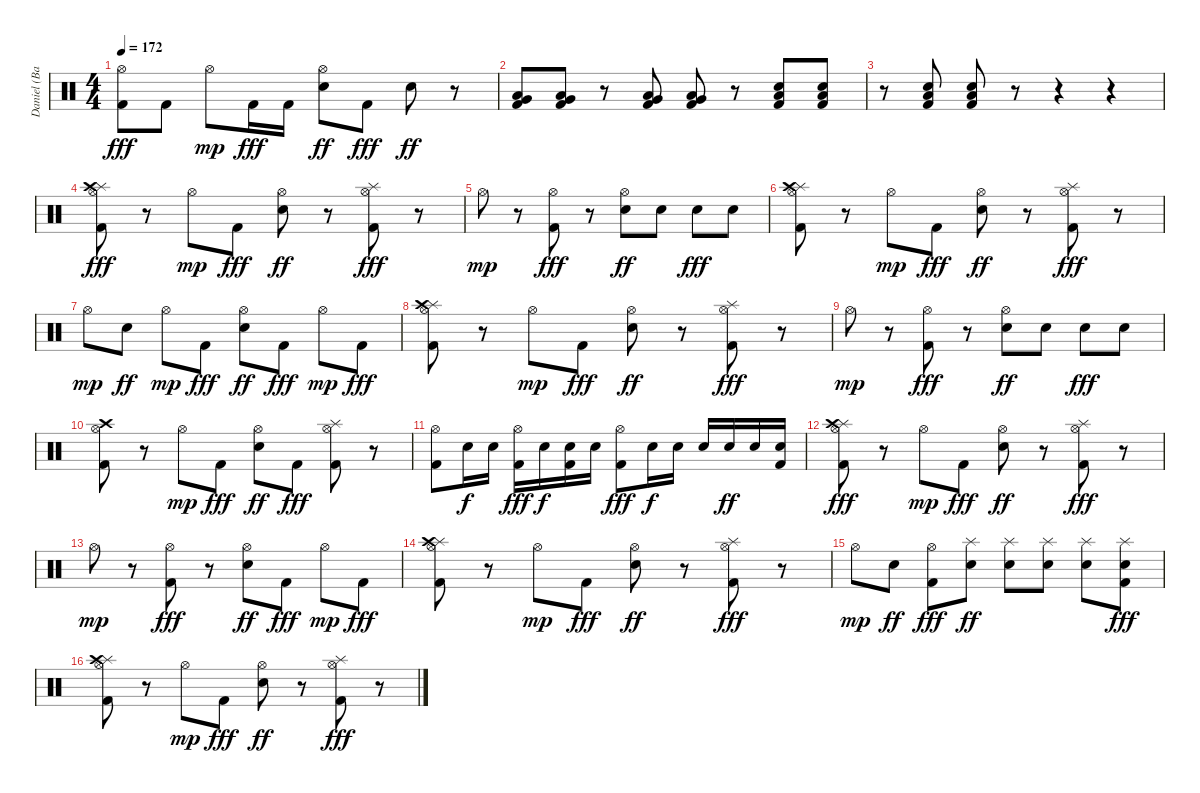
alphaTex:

\track ("Daniel (Bateria)" "Daniel (Ba") {instrument percussion}
\staff {score}
\articulation defaults
\ts (4 4)
\tempo 172
\clef neutral
\ks c
("Hi-Hat (open)" "Kick (hit) 2").8{dy fff} "Kick (hit) 2".8 "Hi-Hat (open)".8{dy mp} "Kick (hit) 2".16{dy fff} "Kick (hit) 2".16 ("Hi-Hat (open)" "Electric Snare (hit)").8{dy ff} "Kick (hit) 2".8{dy fff} "Electric Snare (hit)".8{dy ff} r.8 |
("Low Floor Tom (hit)" "Very Low Tom (hit)" "Kick (hit) 2").8 ("Low Floor Tom (hit)" "Very Low Tom (hit)" "Kick (hit) 2").8 r.8 ("Low Floor Tom (hit)" "Very Low Tom (hit)" "Kick (hit) 2").8 ("Low Floor Tom (hit)" "Very Low Tom (hit)" "Kick (hit) 2").8 r.8 ("Low Tom (hit)" "Electric Snare (hit)" "Kick (hit) 2").8 ("Low Tom (hit)" "Electric Snare (hit)" "Kick (hit) 2").8 |
r.8 ("Low Tom (hit)" "Electric Snare (hit)" "Kick (hit) 2").8 ("Low Tom (hit)" "Electric Snare (hit)" "Kick (hit) 2").8 r.8 r.4 r.4 |
("Splash (hit)" "Hi-Hat (open)" "Crash high (hit)" "Kick (hit) 2").8{dy fff} r.8 "Hi-Hat (open)".8{dy mp} "Kick (hit) 2".8{dy fff} ("Hi-Hat (open)" "Electric Snare (hit)").8{dy ff} r.8 ("Splash (hit)" "Hi-Hat (open)" "Kick (hit) 2").8{dy fff} r.8 |
"Hi-Hat (open)".8{dy mp} r.8 ("Hi-Hat (open)" "Kick (hit) 2").8{dy fff} r.8 ("Hi-Hat (open)" "Electric Snare (hit)").8{dy ff} "Electric Snare (hit)".8 "Electric Snare (hit)".8{dy fff} "Electric Snare (hit)".8 |
("Splash (hit)" "Hi-Hat (open)" "Crash high (hit)" "Kick (hit) 2").8 r.8 "Hi-Hat (open)".8{dy mp} "Kick (hit) 2".8{dy fff} ("Hi-Hat (open)" "Electric Snare (hit)").8{dy ff} r.8 ("Splash (hit)" "Hi-Hat (open)" "Kick (hit) 2").8{dy fff} r.8 |
"Hi-Hat (open)".8{dy mp} "Electric Snare (hit)".8{dy ff} "Hi-Hat (open)".8{dy mp} "Kick (hit) 2".8{dy fff} ("Hi-Hat (open)" "Electric Snare (hit)").8{dy ff} "Kick (hit) 2".8{dy fff} "Hi-Hat (open)".8{dy mp} "Kick (hit) 2".8{dy fff} |
("Splash (hit)" "Hi-Hat (open)" "Crash high (hit)" "Kick (hit) 2").8 r.8 "Hi-Hat (open)".8{dy mp} "Kick (hit) 2".8{dy fff} ("Hi-Hat (open)" "Electric Snare (hit)").8{dy ff} r.8 ("Splash (hit)" "Hi-Hat (open)" "Kick (hit) 2").8{dy fff} r.8 |
"Hi-Hat (open)".8{dy mp} r.8 ("Hi-Hat (open)" "Kick (hit) 2").8{dy fff} r.8 ("Hi-Hat (open)" "Electric Snare (hit)").8{dy ff} "Electric Snare (hit)".8 "Electric Snare (hit)".8{dy fff} "Electric Snare (hit)".8 |
("Hi-Hat (open)" "Crash high (hit)" "Kick (hit) 2").8 r.8 "Hi-Hat (open)".8{dy mp} "Kick (hit) 2".8{dy fff} ("Hi-Hat (open)" "Electric Snare (hit)").8{dy ff} "Kick (hit) 2".8{dy fff} ("Splash (hit)" "Hi-Hat (open)" "Kick (hit) 2").8 r.8 |
("Hi-Hat (open)" "Kick (hit) 2").8 "Electric Snare (hit)".16{dy f} "Electric Snare (hit)".16 ("Hi-Hat (open)" "Kick (hit) 2").16{dy fff} "Electric Snare (hit)".16{dy f} ("Electric Snare (hit)" "Kick (hit) 2").16 "Electric Snare (hit)".16 ("Hi-Hat (open)" "Kick (hit) 2").8{dy fff} "Electric Snare (hit)".16{dy f} "Electric Snare (hit)".16 "Electric Snare (hit)".16 "Electric Snare (hit)".16{dy ff} "Electric Snare (hit)".16 ("Electric Snare (hit)" "Kick (hit) 2").16 |
("Splash (hit)" "Hi-Hat (open)" "Crash high (hit)" "Kick (hit) 2").8{dy fff} r.8 "Hi-Hat (open)".8{dy mp} "Kick (hit) 2".8{dy fff} ("Hi-Hat (open)" "Electric Snare (hit)").8{dy ff} r.8 ("Splash (hit)" "Hi-Hat (open)" "Kick (hit) 2").8{dy fff} r.8 |
"Hi-Hat (open)".8{dy mp} r.8 ("Hi-Hat (open)" "Kick (hit) 2").8{dy fff} r.8 ("Hi-Hat (open)" "Electric Snare (hit)").8{dy ff} "Kick (hit) 2".8{dy fff} "Hi-Hat (open)".8{dy mp} "Kick (hit) 2".8{dy fff} |
("Splash (hit)" "Hi-Hat (open)" "Crash high (hit)" "Kick (hit) 2").8 r.8 "Hi-Hat (open)".8{dy mp} "Kick (hit) 2".8{dy fff} ("Hi-Hat (open)" "Electric Snare (hit)").8{dy ff} r.8 ("Splash (hit)" "Hi-Hat (open)" "Kick (hit) 2").8{dy fff} r.8 |
"Hi-Hat (open)".8{dy mp} "Electric Snare (hit)".8{dy ff} ("Hi-Hat (open)" "Kick (hit) 2").8{dy fff} ("Splash (hit)" "Electric Snare (hit)").8{dy ff} ("Splash (hit)" "Electric Snare (hit)").8 ("Splash (hit)" "Electric Snare (hit)").8 ("Splash (hit)" "Electric Snare (hit)").8 ("Splash (hit)" "Electric Snare (hit)" "Kick (hit) 2").8{dy fff} |
("Splash (hit)" "Hi-Hat (open)" "Crash high (hit)" "Kick (hit) 2").8 r.8 "Hi-Hat (open)".8{dy mp} "Kick (hit) 2".8{dy fff} ("Hi-Hat (open)" "Electric Snare (hit)").8{dy ff} r.8 ("Splash (hit)" "Hi-Hat (open)" "Kick (hit) 2").8{dy fff} r.8
